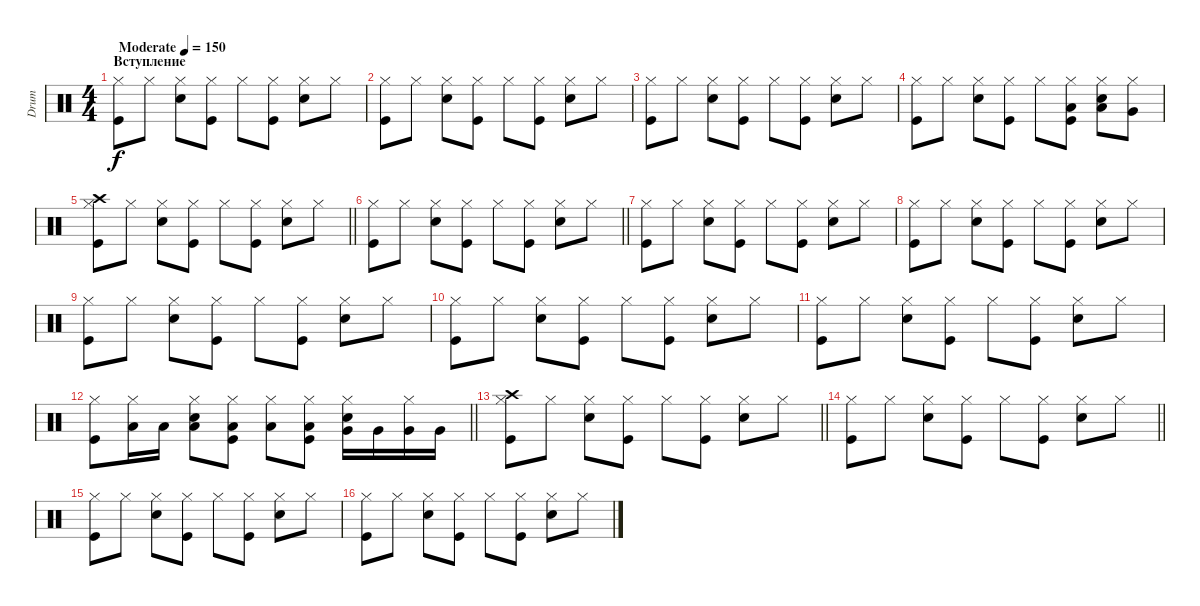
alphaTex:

\track ("Drum" "Drum") {instrument percussion}
\staff {score}
\articulation defaults
\ts (4 4)
\section ("" "Вступление")
\tempo (150 "Moderate")
\clef neutral
\ks c
("Kick (hit)" "Hi-Hat (closed)").8{dy f} "Hi-Hat (closed)".8 ("Snare (hit) 2" "Hi-Hat (closed)").8 ("Kick (hit)" "Hi-Hat (closed)").8 "Hi-Hat (closed)".8 ("Kick (hit)" "Hi-Hat (closed)").8 ("Snare (hit) 2" "Hi-Hat (closed)").8 "Hi-Hat (closed)".8 |
("Kick (hit)" "Hi-Hat (closed)").8 "Hi-Hat (closed)".8 ("Snare (hit) 2" "Hi-Hat (closed)").8 ("Kick (hit)" "Hi-Hat (closed)").8 "Hi-Hat (closed)".8 ("Kick (hit)" "Hi-Hat (closed)").8 ("Snare (hit) 2" "Hi-Hat (closed)").8 "Hi-Hat (closed)".8 |
("Kick (hit)" "Hi-Hat (closed)").8 "Hi-Hat (closed)".8 ("Snare (hit) 2" "Hi-Hat (closed)").8 ("Kick (hit)" "Hi-Hat (closed)").8 "Hi-Hat (closed)".8 ("Kick (hit)" "Hi-Hat (closed)").8 ("Snare (hit) 2" "Hi-Hat (closed)").8 "Hi-Hat (closed)".8 |
("Kick (hit)" "Hi-Hat (closed)").8 "Hi-Hat (closed)".8 ("Snare (hit) 2" "Hi-Hat (closed)").8 ("Kick (hit)" "Hi-Hat (closed)").8 "Hi-Hat (closed)".8 ("Kick (hit)" "Hi-Hat (closed)" "Low Tom (hit)").8 ("Snare (hit) 2" "Hi-Hat (closed)" "Low Tom (hit)").8 ("Hi-Hat (closed)" "Very Low Tom (hit)").8 |
\barLineRight lightlight
("Kick (hit)" "Hi-Hat (closed)" "Crash high (hit)").8 "Hi-Hat (closed)".8 ("Snare (hit) 2" "Hi-Hat (closed)").8 ("Kick (hit)" "Hi-Hat (closed)").8 "Hi-Hat (closed)".8 ("Kick (hit)" "Hi-Hat (closed)").8 ("Snare (hit) 2" "Hi-Hat (closed)").8 "Hi-Hat (closed)".8 |
\barLineRight lightlight
("Kick (hit)" "Hi-Hat (closed)").8 "Hi-Hat (closed)".8 ("Snare (hit) 2" "Hi-Hat (closed)").8 ("Kick (hit)" "Hi-Hat (closed)").8 "Hi-Hat (closed)".8 ("Kick (hit)" "Hi-Hat (closed)").8 ("Snare (hit) 2" "Hi-Hat (closed)").8 "Hi-Hat (closed)".8 |
("Kick (hit)" "Hi-Hat (closed)").8 "Hi-Hat (closed)".8 ("Snare (hit) 2" "Hi-Hat (closed)").8 ("Kick (hit)" "Hi-Hat (closed)").8 "Hi-Hat (closed)".8 ("Kick (hit)" "Hi-Hat (closed)").8 ("Snare (hit) 2" "Hi-Hat (closed)").8 "Hi-Hat (closed)".8 |
("Kick (hit)" "Hi-Hat (closed)").8 "Hi-Hat (closed)".8 ("Snare (hit) 2" "Hi-Hat (closed)").8 ("Kick (hit)" "Hi-Hat (closed)").8 "Hi-Hat (closed)".8 ("Kick (hit)" "Hi-Hat (closed)").8 ("Snare (hit) 2" "Hi-Hat (closed)").8 "Hi-Hat (closed)".8 |
("Kick (hit)" "Hi-Hat (closed)").8 "Hi-Hat (closed)".8 ("Snare (hit) 2" "Hi-Hat (closed)").8 ("Kick (hit)" "Hi-Hat (closed)").8 "Hi-Hat (closed)".8 ("Kick (hit)" "Hi-Hat (closed)").8 ("Snare (hit) 2" "Hi-Hat (closed)").8 "Hi-Hat (closed)".8 |
("Kick (hit)" "Hi-Hat (closed)").8 "Hi-Hat (closed)".8 ("Snare (hit) 2" "Hi-Hat (closed)").8 ("Kick (hit)" "Hi-Hat (closed)").8 "Hi-Hat (closed)".8 ("Kick (hit)" "Hi-Hat (closed)").8 ("Snare (hit) 2" "Hi-Hat (closed)").8 "Hi-Hat (closed)".8 |
("Kick (hit)" "Hi-Hat (closed)").8 "Hi-Hat (closed)".8 ("Snare (hit) 2" "Hi-Hat (closed)").8 ("Kick (hit)" "Hi-Hat (closed)").8 "Hi-Hat (closed)".8 ("Kick (hit)" "Hi-Hat (closed)").8 ("Snare (hit) 2" "Hi-Hat (closed)").8 "Hi-Hat (closed)".8 |
\barLineRight lightlight
("Kick (hit)" "Hi-Hat (closed)").8 ("Hi-Hat (closed)" "Low Tom (hit)").16 "Low Tom (hit)".16 ("Snare (hit) 2" "Hi-Hat (closed)" "Low Tom (hit)").8 ("Kick (hit)" "Hi-Hat (closed)" "Low Tom (hit)").8 ("Hi-Hat (closed)" "Low Tom (hit)").8 ("Kick (hit)" "Hi-Hat (closed)" "Low Tom (hit)").8 ("Snare (hit) 2" "Hi-Hat (closed)" "Very Low Tom (hit)").16 "Very Low Tom (hit)".16 ("Hi-Hat (closed)" "Very Low Tom (hit)").16 "Very Low Tom (hit)".16 |
\barLineRight lightlight
("Kick (hit)" "Hi-Hat (closed)" "Crash high (hit)").8 "Hi-Hat (closed)".8 ("Snare (hit) 2" "Hi-Hat (closed)").8 ("Kick (hit)" "Hi-Hat (closed)").8 "Hi-Hat (closed)".8 ("Kick (hit)" "Hi-Hat (closed)").8 ("Snare (hit) 2" "Hi-Hat (closed)").8 "Hi-Hat (closed)".8 |
\barLineRight lightlight
("Kick (hit)" "Hi-Hat (closed)").8 "Hi-Hat (closed)".8 ("Snare (hit) 2" "Hi-Hat (closed)").8 ("Kick (hit)" "Hi-Hat (closed)").8 "Hi-Hat (closed)".8 ("Kick (hit)" "Hi-Hat (closed)").8 ("Snare (hit) 2" "Hi-Hat (closed)").8 "Hi-Hat (closed)".8 |
("Kick (hit)" "Hi-Hat (closed)").8 "Hi-Hat (closed)".8 ("Snare (hit) 2" "Hi-Hat (closed)").8 ("Kick (hit)" "Hi-Hat (closed)").8 "Hi-Hat (closed)".8 ("Kick (hit)" "Hi-Hat (closed)").8 ("Snare (hit) 2" "Hi-Hat (closed)").8 "Hi-Hat (closed)".8 |
("Kick (hit)" "Hi-Hat (closed)").8 "Hi-Hat (closed)".8 ("Snare (hit) 2" "Hi-Hat (closed)").8 ("Kick (hit)" "Hi-Hat (closed)").8 "Hi-Hat (closed)".8 ("Kick (hit)" "Hi-Hat (closed)").8 ("Snare (hit) 2" "Hi-Hat (closed)").8 "Hi-Hat (closed)".8
